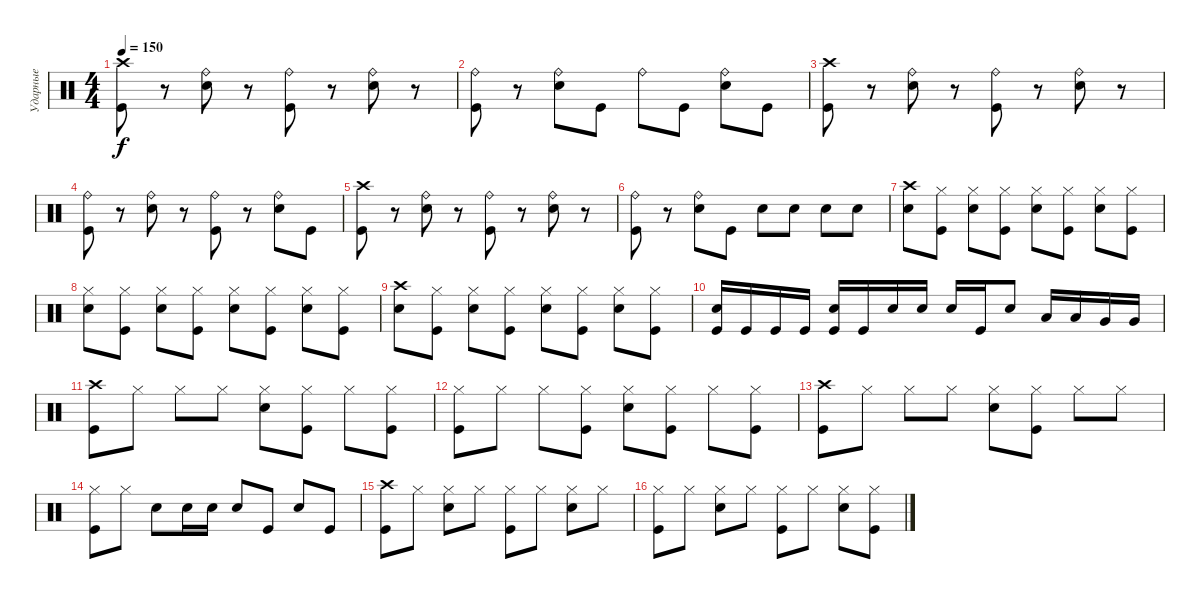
\track ("Ударные" "Ударные") {instrument percussion}
\staff {score}
\articulation defaults
\ts (4 4)
\tempo 150
\clef neutral
\ks c
("Crash high (hit)" "Kick (hit)").8{dy f} r.8 ("Ride (bell)" "Electric Snare (hit)").8 r.8 ("Ride (bell)" "Kick (hit)").8 r.8 ("Ride (bell)" "Electric Snare (hit)").8 r.8 |
("Ride (bell)" "Kick (hit)").8 r.8 ("Ride (bell)" "Electric Snare (hit)").8 "Kick (hit)".8 "Ride (bell)".8 "Kick (hit)".8 ("Ride (bell)" "Electric Snare (hit)").8 "Kick (hit)".8 |
("Crash high (hit)" "Kick (hit)").8 r.8 ("Ride (bell)" "Electric Snare (hit)").8 r.8 ("Ride (bell)" "Kick (hit)").8 r.8 ("Ride (bell)" "Electric Snare (hit)").8 r.8 |
("Ride (bell)" "Kick (hit)").8 r.8 ("Ride (bell)" "Electric Snare (hit)").8 r.8 ("Ride (bell)" "Kick (hit)").8 r.8 ("Ride (bell)" "Electric Snare (hit)").8 "Kick (hit)".8 |
("Crash high (hit)" "Kick (hit)").8 r.8 ("Ride (bell)" "Electric Snare (hit)").8 r.8 ("Ride (bell)" "Kick (hit)").8 r.8 ("Ride (bell)" "Electric Snare (hit)").8 r.8 |
("Ride (bell)" "Kick (hit)").8 r.8 ("Ride (bell)" "Electric Snare (hit)").8 "Kick (hit)".8 "Electric Snare (hit)".8 "Electric Snare (hit)".8 "Electric Snare (hit)".8 "Electric Snare (hit)".8 |
("Crash high (hit)" "Electric Snare (hit)").8 ("Hi-Hat (closed)" "Kick (hit)").8 ("Hi-Hat (closed)" "Electric Snare (hit)").8 ("Hi-Hat (closed)" "Kick (hit)").8 ("Hi-Hat (closed)" "Electric Snare (hit)").8 ("Hi-Hat (closed)" "Kick (hit)").8 ("Hi-Hat (closed)" "Electric Snare (hit)").8 ("Hi-Hat (closed)" "Kick (hit)").8 |
("Hi-Hat (closed)" "Electric Snare (hit)").8 ("Hi-Hat (closed)" "Kick (hit)").8 ("Hi-Hat (closed)" "Electric Snare (hit)").8 ("Hi-Hat (closed)" "Kick (hit)").8 ("Hi-Hat (closed)" "Electric Snare (hit)").8 ("Hi-Hat (closed)" "Kick (hit)").8 ("Hi-Hat (closed)" "Electric Snare (hit)").8 ("Hi-Hat (closed)" "Kick (hit)").8 |
("Crash high (hit)" "Electric Snare (hit)").8 ("Hi-Hat (closed)" "Kick (hit)").8 ("Hi-Hat (closed)" "Electric Snare (hit)").8 ("Hi-Hat (closed)" "Kick (hit)").8 ("Hi-Hat (closed)" "Electric Snare (hit)").8 ("Hi-Hat (closed)" "Kick (hit)").8 ("Hi-Hat (closed)" "Electric Snare (hit)").8 ("Hi-Hat (closed)" "Kick (hit)").8 |
("Electric Snare (hit)" "Kick (hit)").16 "Kick (hit)".16 "Kick (hit)".16 "Kick (hit)".16 ("Electric Snare (hit)" "Kick (hit)").16 "Kick (hit)".16 "Electric Snare (hit)".16 "Electric Snare (hit)".16 "Electric Snare (hit)".16 "Kick (hit)".16 "Electric Snare (hit)".8 "Low Tom (hit)".16 "Low Tom (hit)".16 "Very Low Tom (hit)".16 "Very Low Tom (hit)".16 |
("Crash high (hit)" "Kick (hit)").8 "Hi-Hat (closed)".8 "Hi-Hat (closed)".8 "Hi-Hat (closed)".8 ("Hi-Hat (closed)" "Electric Snare (hit)").8 ("Hi-Hat (closed)" "Kick (hit)").8 "Hi-Hat (closed)".8 ("Hi-Hat (closed)" "Kick (hit)").8 |
("Hi-Hat (closed)" "Kick (hit)").8 "Hi-Hat (closed)".8 "Hi-Hat (closed)".8 ("Hi-Hat (closed)" "Kick (hit)").8 ("Hi-Hat (closed)" "Electric Snare (hit)").8 ("Hi-Hat (closed)" "Kick (hit)").8 "Hi-Hat (closed)".8 ("Hi-Hat (closed)" "Kick (hit)").8 |
("Crash high (hit)" "Kick (hit)").8 "Hi-Hat (closed)".8 "Hi-Hat (closed)".8 "Hi-Hat (closed)".8 ("Hi-Hat (closed)" "Electric Snare (hit)").8 ("Hi-Hat (closed)" "Kick (hit)").8 "Hi-Hat (closed)".8 "Hi-Hat (closed)".8 |
("Hi-Hat (closed)" "Kick (hit)").8 "Hi-Hat (closed)".8 "Electric Snare (hit)".8 "Electric Snare (hit)".16 "Electric Snare (hit)".16 "Electric Snare (hit)".8 "Kick (hit)".8 "Electric Snare (hit)".8 "Kick (hit)".8 |
("Crash high (hit)" "Kick (hit)").8 "Hi-Hat (closed)".8 ("Hi-Hat (closed)" "Electric Snare (hit)").8 "Hi-Hat (closed)".8 ("Hi-Hat (closed)" "Kick (hit)").8 "Hi-Hat (closed)".8 ("Hi-Hat (closed)" "Electric Snare (hit)").8 "Hi-Hat (closed)".8 |
("Hi-Hat (closed)" "Kick (hit)").8 "Hi-Hat (closed)".8 ("Hi-Hat (closed)" "Electric Snare (hit)").8 "Hi-Hat (closed)".8 ("Hi-Hat (closed)" "Kick (hit)").8 "Hi-Hat (closed)".8 ("Hi-Hat (closed)" "Electric Snare (hit)").8 ("Hi-Hat (closed)" "Kick (hit)").8
